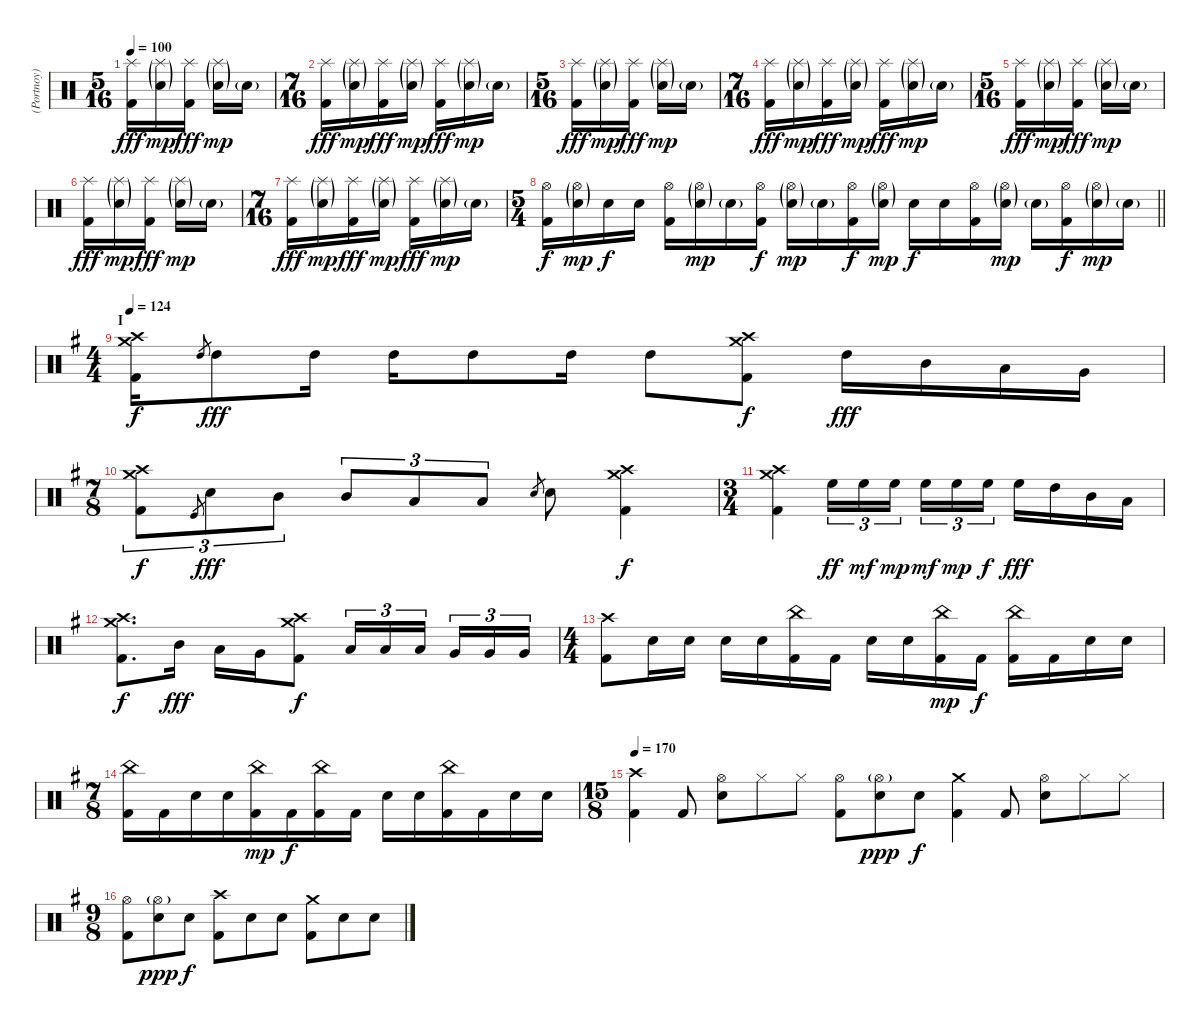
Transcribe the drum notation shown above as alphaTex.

\track ("(Portnoy) Drums" "(Portnoy) ") {instrument percussion}
\staff {score}
\articulation defaults
\ts (5 16)
\tempo 100
\clef neutral
\ks aminor
("Splash (hit)" "Kick (hit) 2").16{dy fff} ("Splash (hit)"{g} "Snare (hit) 2"{g}).16{dy mp} ("Splash (hit)" "Kick (hit) 2").16{dy fff} ("Splash (hit)"{g} "Snare (hit) 2"{g}).16{dy mp} "Snare (hit) 2"{g}.16 |
\ts (7 16)
("Splash (hit)" "Kick (hit) 2").16{dy fff} ("Splash (hit)"{g} "Snare (hit) 2"{g}).16{dy mp} ("Splash (hit)" "Kick (hit) 2").16{dy fff} ("Splash (hit)"{g} "Snare (hit) 2"{g}).16{dy mp} ("Splash (hit)" "Kick (hit) 2").16{dy fff} ("Splash (hit)"{g} "Snare (hit) 2"{g}).16{dy mp} "Snare (hit) 2"{g}.16 |
\ts (5 16)
("Splash (hit)" "Kick (hit) 2").16{dy fff} ("Splash (hit)"{g} "Snare (hit) 2"{g}).16{dy mp} ("Splash (hit)" "Kick (hit) 2").16{dy fff} ("Splash (hit)"{g} "Snare (hit) 2"{g}).16{dy mp} "Snare (hit) 2"{g}.16 |
\ts (7 16)
("Splash (hit)" "Kick (hit) 2").16{dy fff} ("Splash (hit)"{g} "Snare (hit) 2"{g}).16{dy mp} ("Splash (hit)" "Kick (hit) 2").16{dy fff} ("Splash (hit)"{g} "Snare (hit) 2"{g}).16{dy mp} ("Splash (hit)" "Kick (hit) 2").16{dy fff} ("Splash (hit)"{g} "Snare (hit) 2"{g}).16{dy mp} "Snare (hit) 2"{g}.16 |
\ts (5 16)
("Splash (hit)" "Kick (hit) 2").16{dy fff} ("Splash (hit)"{g} "Snare (hit) 2"{g}).16{dy mp} ("Splash (hit)" "Kick (hit) 2").16{dy fff} ("Splash (hit)"{g} "Snare (hit) 2"{g}).16{dy mp} "Snare (hit) 2"{g}.16 |
("Splash (hit)" "Kick (hit) 2").16{dy fff} ("Splash (hit)"{g} "Snare (hit) 2"{g}).16{dy mp} ("Splash (hit)" "Kick (hit) 2").16{dy fff} ("Splash (hit)"{g} "Snare (hit) 2"{g}).16{dy mp} "Snare (hit) 2"{g}.16 |
\ts (7 16)
("Splash (hit)" "Kick (hit) 2").16{dy fff} ("Splash (hit)"{g} "Snare (hit) 2"{g}).16{dy mp} ("Splash (hit)" "Kick (hit) 2").16{dy fff} ("Splash (hit)"{g} "Snare (hit) 2"{g}).16{dy mp} ("Splash (hit)" "Kick (hit) 2").16{dy fff} ("Splash (hit)"{g} "Snare (hit) 2"{g}).16{dy mp} "Snare (hit) 2"{g}.16 |
\ts (5 4)
\barLineRight lightlight
("Hi-Hat (open)" "Kick (hit) 2").16{dy f} ("Hi-Hat (open)"{g} "Snare (hit) 2"{g}).16{dy mp} "Snare (hit) 2".16{dy f} "Snare (hit) 2".16 ("Hi-Hat (open)" "Kick (hit) 2").16 ("Hi-Hat (open)"{g} "Snare (hit) 2"{g}).16{dy mp} "Snare (hit) 2"{g}.16 ("Hi-Hat (open)" "Kick (hit) 2").16{dy f} ("Hi-Hat (open)"{g} "Snare (hit) 2"{g}).16{dy mp} "Snare (hit) 2"{g}.16 ("Hi-Hat (open)" "Kick (hit) 2").16{dy f} ("Hi-Hat (open)"{g} "Snare (hit) 2"{g}).16{dy mp} "Snare (hit) 2".16{dy f} "Snare (hit) 2".16 ("Hi-Hat (open)" "Kick (hit) 2").16 ("Hi-Hat (open)"{g} "Snare (hit) 2"{g}).16{dy mp} "Snare (hit) 2"{g}.16 ("Hi-Hat (open)" "Kick (hit) 2").16{dy f} ("Hi-Hat (open)"{g} "Snare (hit) 2"{g}).16{dy mp} "Snare (hit) 2"{g}.16 |
\ts (4 4)
\section ("" "I")
\tempo 124
\ks g
("Crash high (hit)" "Crash medium (hit)" "Kick (hit) 2").16{dy f} "High Tom (hit)".8{gr} "High Tom (hit)".8{dy fff} "High Tom (hit)".16 "High Tom (hit)".16 "High Tom (hit)".8 "High Tom (hit)".16 "High Tom (hit)".8 ("Crash high (hit)" "Crash medium (hit)" "Kick (hit) 2").8{dy f} "High Tom (hit)".16{dy fff} "Mid Tom (hit)".16 "Low Tom (hit)".16 "Very Low Tom (hit)".16 |
\ts (7 8)
("Crash high (hit)" "Crash medium (hit)" "Kick (hit) 2").8{tu (3 2) dy f} "Kick (hit)".8{gr} "Snare (hit) 2".8{tu (3 2) dy fff} "Mid Tom (hit)".8{tu (3 2)} "Mid Tom (hit)".8{tu (3 2)} "Low Tom (hit)".8{tu (3 2)} "Low Tom (hit)".8{tu (3 2)} "Snare (hit) 2".8{gr} "Snare (hit) 2".8 ("Crash high (hit)" "Crash medium (hit)" "Kick (hit) 2").4{dy f} |
\ts (3 4)
("Crash high (hit)" "Crash medium (hit)" "Kick (hit) 2").4 "High Floor Tom (hit)".16{tu (3 2) dy ff} "High Floor Tom (hit)".16{tu (3 2) dy mf} "High Floor Tom (hit)".16{tu (3 2) dy mp beam splitsecondary} "High Floor Tom (hit)".16{tu (3 2) dy mf} "High Floor Tom (hit)".16{tu (3 2) dy mp} "High Floor Tom (hit)".16{tu (3 2) dy f} "High Floor Tom (hit)".16{dy fff} "High Tom (hit)".16 "Mid Tom (hit)".16 "Low Tom (hit)".16 |
("Crash high (hit)" "Crash medium (hit)" "Kick (hit) 2").8{d dy f} "Mid Tom (hit)".16{dy fff} "Low Tom (hit)".16 "Very Low Tom (hit)".16 ("Crash high (hit)" "Crash medium (hit)" "Kick (hit) 2").8{dy f} "Low Tom (hit)".16{tu (3 2)} "Low Tom (hit)".16{tu (3 2)} "Low Tom (hit)".16{tu (3 2) beam splitsecondary} "Very Low Tom (hit)".16{tu (3 2)} "Very Low Tom (hit)".16{tu (3 2)} "Very Low Tom (hit)".16{tu (3 2)} |
\ts (4 4)
("Crash high (hit)" "Kick (hit) 2").8 "Snare (hit) 2".16 "Snare (hit) 2".16 "Snare (hit) 2".16 "Snare (hit) 2".16 ("China (hit)" "Kick (hit) 2").16 "Kick (hit) 2".16 "Snare (hit) 2".16 "Snare (hit) 2".16 ("China (hit)" "Kick (hit) 2").16{dy mp} "Kick (hit) 2".16{dy f} ("China (hit)" "Kick (hit) 2").16 "Kick (hit) 2".16 "Snare (hit) 2".16 "Snare (hit) 2".16 |
\ts (7 8)
("China (hit)" "Kick (hit) 2").16 "Kick (hit) 2".16 "Snare (hit) 2".16 "Snare (hit) 2".16 ("China (hit)" "Kick (hit) 2").16{dy mp} "Kick (hit) 2".16{dy f} ("China (hit)" "Kick (hit) 2").16 "Kick (hit) 2".16 "Snare (hit) 2".16 "Snare (hit) 2".16 ("China (hit)" "Kick (hit) 2").16 "Kick (hit) 2".16 "Snare (hit) 2".16 "Snare (hit) 2".16 |
\ts (15 8)
\tempo 170
("Crash high (hit)" "Kick (hit) 2").4 "Kick (hit) 2".8 ("Hi-Hat (open)" "Snare (hit) 2").8 "Hi-Hat (closed)".8 "Hi-Hat (closed)".8 ("Hi-Hat (open)" "Kick (hit) 2").8 ("Hi-Hat (open)"{g} "Snare (hit) 2").8{dy ppp} "Snare (hit) 2".8{dy f} ("Crash medium (hit)" "Kick (hit) 2").4 "Kick (hit) 2".8 ("Hi-Hat (open)" "Snare (hit) 2").8 "Hi-Hat (closed)".8 "Hi-Hat (closed)".8 |
\ts (9 8)
("Hi-Hat (open)" "Kick (hit) 2").8 ("Hi-Hat (open)"{g} "Snare (hit) 2").8{dy ppp} "Snare (hit) 2".8{dy f} ("Crash high (hit)" "Kick (hit) 2").8 "Snare (hit) 2".8 "Snare (hit) 2".8 ("Crash medium (hit)" "Kick (hit) 2").8 "Snare (hit) 2".8 "Snare (hit) 2".8
